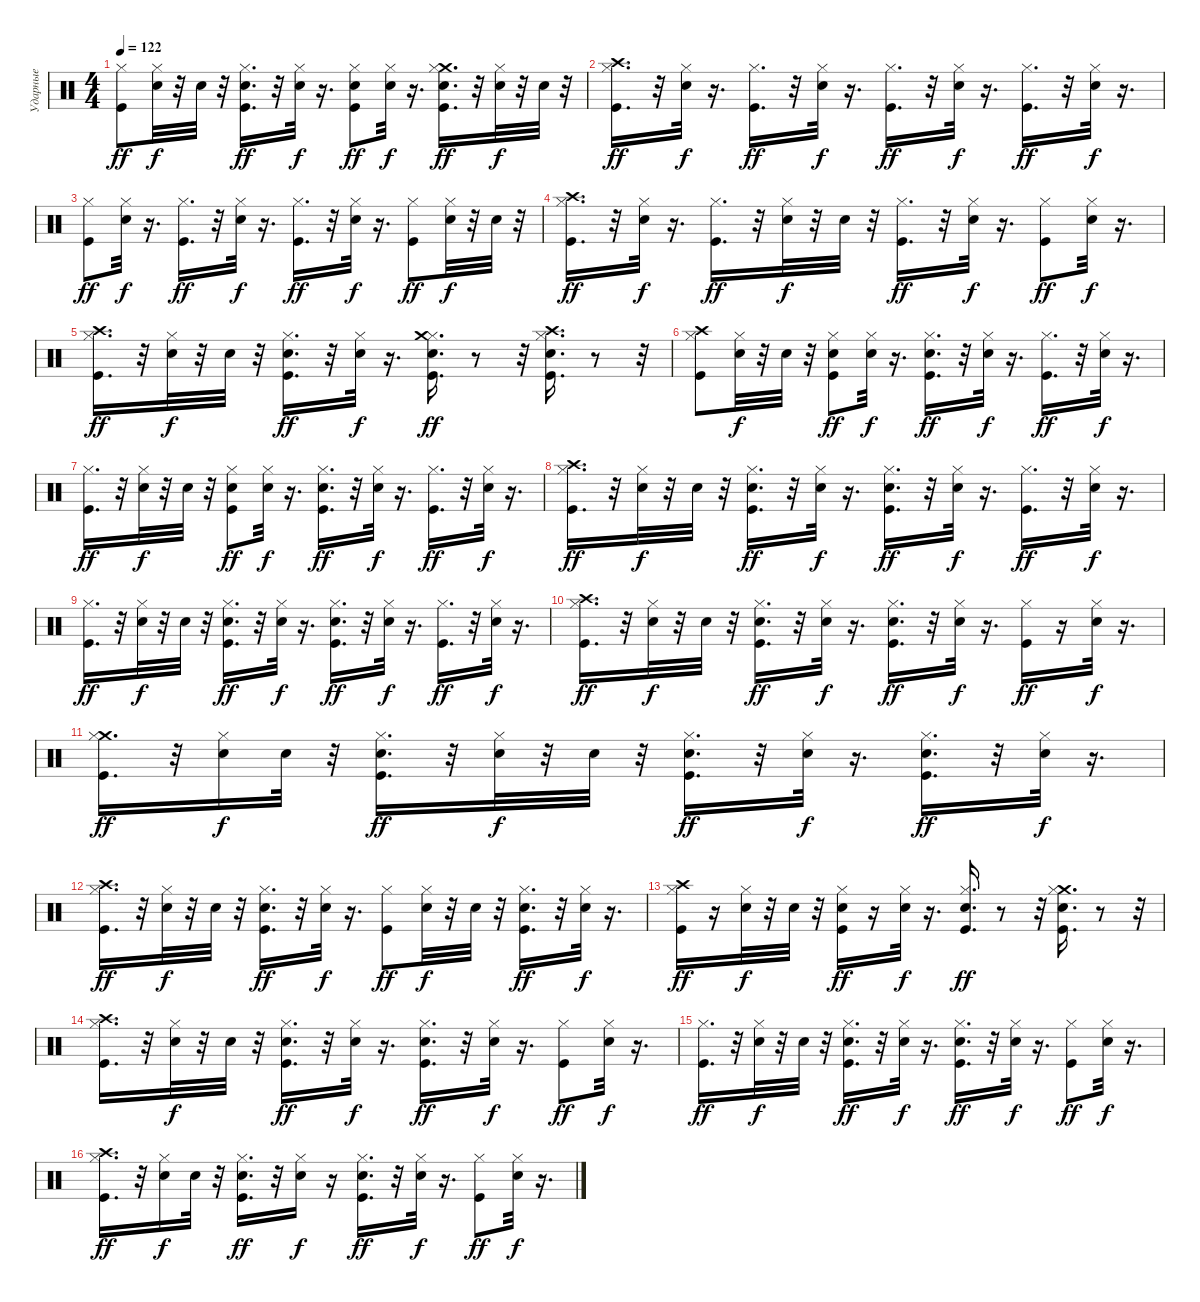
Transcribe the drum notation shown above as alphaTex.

\track ("Ударные" "Ударные") {instrument percussion}
\staff {score}
\articulation defaults
\ts (4 4)
\tempo 122
\clef neutral
\ks c
("Kick (hit)" "Hi-Hat (closed)").8{dy ff} ("Electric Snare (hit)" "Hi-Hat (closed)").32{dy f} r.32 "Electric Snare (hit)".32 r.32 ("Electric Snare (hit)" "Kick (hit)" "Hi-Hat (closed)").16{d dy ff} r.32 ("Electric Snare (hit)" "Hi-Hat (closed)").32{dy f} r.16{d} ("Electric Snare (hit)" "Kick (hit)" "Hi-Hat (closed)").8{dy ff} ("Electric Snare (hit)" "Hi-Hat (closed)").32{dy f} r.16{d} ("Electric Snare (hit)" "Crash medium (hit)" "Kick (hit)" "Hi-Hat (closed)").16{d dy ff} r.32 ("Hi-Hat (closed)" "Electric Snare (hit)").32{dy f} r.32 "Electric Snare (hit)".32 r.32 |
("Crash high (hit)" "Kick (hit)" "Hi-Hat (closed)").16{d dy ff} r.32 ("Hi-Hat (closed)" "Electric Snare (hit)").32{dy f} r.16{d} ("Hi-Hat (closed)" "Kick (hit)").16{d dy ff} r.32 ("Electric Snare (hit)" "Hi-Hat (closed)").32{dy f} r.16{d} ("Kick (hit)" "Hi-Hat (closed)").16{d dy ff} r.32 ("Electric Snare (hit)" "Hi-Hat (closed)").32{dy f} r.16{d} ("Hi-Hat (closed)" "Kick (hit)").16{d dy ff} r.32 ("Hi-Hat (closed)" "Electric Snare (hit)").32{dy f} r.16{d} |
("Hi-Hat (closed)" "Kick (hit)").8{dy ff} ("Hi-Hat (closed)" "Electric Snare (hit)").32{dy f} r.16{d} ("Hi-Hat (closed)" "Kick (hit)").16{d dy ff} r.32 ("Hi-Hat (closed)" "Electric Snare (hit)").32{dy f} r.16{d} ("Kick (hit)" "Hi-Hat (closed)").16{d dy ff} r.32 ("Hi-Hat (closed)" "Electric Snare (hit)").32{dy f} r.16{d} ("Hi-Hat (closed)" "Kick (hit)").8{dy ff} ("Electric Snare (hit)" "Hi-Hat (closed)").32{dy f} r.32 "Electric Snare (hit)".32 r.32 |
("Crash high (hit)" "Kick (hit)" "Hi-Hat (closed)").16{d dy ff} r.32 ("Hi-Hat (closed)" "Electric Snare (hit)").32{dy f} r.16{d} ("Kick (hit)" "Hi-Hat (closed)").16{d dy ff} r.32 ("Hi-Hat (closed)" "Electric Snare (hit)").32{dy f} r.32 "Electric Snare (hit)".32 r.32 ("Kick (hit)" "Hi-Hat (closed)").16{d dy ff} r.32 ("Hi-Hat (closed)" "Electric Snare (hit)").32{dy f} r.16{d} ("Kick (hit)" "Hi-Hat (closed)").8{dy ff} ("Electric Snare (hit)" "Hi-Hat (closed)").32{dy f} r.16{d} |
("Kick (hit)" "Hi-Hat (closed)" "Crash high (hit)").16{d dy ff} r.32 ("Electric Snare (hit)" "Hi-Hat (closed)").32{dy f} r.32 "Electric Snare (hit)".32 r.32 ("Electric Snare (hit)" "Kick (hit)" "Hi-Hat (closed)").16{d dy ff} r.32 ("Electric Snare (hit)" "Hi-Hat (closed)").32{dy f} r.16{d} ("Electric Snare (hit)" "Kick (hit)" "Hi-Hat (closed)" "Crash medium (hit)").16{d dy ff} r.8 r.32 ("Hi-Hat (closed)" "Kick (hit)" "Crash high (hit)" "Electric Snare (hit)").16{d} r.8 r.32 |
("Crash high (hit)" "Kick (hit)" "Hi-Hat (closed)").8 ("Electric Snare (hit)" "Hi-Hat (closed)").32{dy f} r.32 "Electric Snare (hit)".32 r.32 ("Electric Snare (hit)" "Hi-Hat (closed)" "Kick (hit)").8{dy ff} ("Electric Snare (hit)" "Hi-Hat (closed)").32{dy f} r.16{d} ("Electric Snare (hit)" "Hi-Hat (closed)" "Kick (hit)").16{d dy ff} r.32 ("Electric Snare (hit)" "Hi-Hat (closed)").32{dy f} r.16{d} ("Hi-Hat (closed)" "Kick (hit)").16{d dy ff} r.32 ("Electric Snare (hit)" "Hi-Hat (closed)").32{dy f} r.16{d} |
("Kick (hit)" "Hi-Hat (closed)").16{d dy ff} r.32 ("Electric Snare (hit)" "Hi-Hat (closed)").32{dy f} r.32 "Electric Snare (hit)".32 r.32 ("Electric Snare (hit)" "Hi-Hat (closed)" "Kick (hit)").8{dy ff} ("Electric Snare (hit)" "Hi-Hat (closed)").32{dy f} r.16{d} ("Electric Snare (hit)" "Kick (hit)" "Hi-Hat (closed)").16{d dy ff} r.32 ("Electric Snare (hit)" "Hi-Hat (closed)").32{dy f} r.16{d} ("Kick (hit)" "Hi-Hat (closed)").16{d dy ff} r.32 ("Hi-Hat (closed)" "Electric Snare (hit)").32{dy f} r.16{d} |
("Crash high (hit)" "Kick (hit)" "Hi-Hat (closed)").16{d dy ff} r.32 ("Hi-Hat (closed)" "Electric Snare (hit)").32{dy f} r.32 "Electric Snare (hit)".32 r.32 ("Hi-Hat (closed)" "Kick (hit)" "Electric Snare (hit)").16{d dy ff} r.32 ("Hi-Hat (closed)" "Electric Snare (hit)").32{dy f} r.16{d} ("Hi-Hat (closed)" "Kick (hit)" "Electric Snare (hit)").16{d dy ff} r.32 ("Hi-Hat (closed)" "Electric Snare (hit)").32{dy f} r.16{d} ("Hi-Hat (closed)" "Kick (hit)").16{d dy ff} r.32 ("Hi-Hat (closed)" "Electric Snare (hit)").32{dy f} r.16{d} |
("Hi-Hat (closed)" "Kick (hit)").16{d dy ff} r.32 ("Electric Snare (hit)" "Hi-Hat (closed)").32{dy f} r.32 "Electric Snare (hit)".32 r.32 ("Hi-Hat (closed)" "Kick (hit)" "Electric Snare (hit)").16{d dy ff} r.32 ("Hi-Hat (closed)" "Electric Snare (hit)").32{dy f} r.16{d} ("Kick (hit)" "Hi-Hat (closed)" "Electric Snare (hit)").16{d dy ff} r.32 ("Electric Snare (hit)" "Hi-Hat (closed)").32{dy f} r.16{d} ("Kick (hit)" "Hi-Hat (closed)").16{d dy ff} r.32 ("Hi-Hat (closed)" "Electric Snare (hit)").32{dy f} r.16{d} |
("Crash high (hit)" "Kick (hit)" "Hi-Hat (closed)").16{d dy ff} r.32 ("Hi-Hat (closed)" "Electric Snare (hit)").32{dy f} r.32 "Electric Snare (hit)".32 r.32 ("Hi-Hat (closed)" "Kick (hit)" "Electric Snare (hit)").16{d dy ff} r.32 ("Hi-Hat (closed)" "Electric Snare (hit)").32{dy f} r.16{d} ("Kick (hit)" "Hi-Hat (closed)" "Electric Snare (hit)").16{d dy ff} r.32 ("Hi-Hat (closed)" "Electric Snare (hit)").32{dy f} r.16{d} ("Kick (hit)" "Hi-Hat (closed)").16{dy ff} r.16 ("Hi-Hat (closed)" "Electric Snare (hit)").32{dy f} r.16{d} |
("Crash medium (hit)" "Kick (hit)" "Hi-Hat (closed)").16{d dy ff} r.32 ("Electric Snare (hit)" "Hi-Hat (closed)").16{dy f} "Electric Snare (hit)".32 r.32 ("Electric Snare (hit)" "Hi-Hat (closed)" "Kick (hit)").16{d dy ff} r.32 ("Hi-Hat (closed)" "Electric Snare (hit)").32{dy f} r.32 "Electric Snare (hit)".32 r.32 ("Kick (hit)" "Hi-Hat (closed)" "Electric Snare (hit)").16{d dy ff} r.32 ("Hi-Hat (closed)" "Electric Snare (hit)").32{dy f} r.16{d} ("Kick (hit)" "Hi-Hat (closed)" "Electric Snare (hit)").16{d dy ff} r.32 ("Hi-Hat (closed)" "Electric Snare (hit)").32{dy f} r.16{d} |
("Crash high (hit)" "Kick (hit)" "Hi-Hat (closed)").16{d dy ff} r.32 ("Hi-Hat (closed)" "Electric Snare (hit)").32{dy f} r.32 "Electric Snare (hit)".32 r.32 ("Kick (hit)" "Hi-Hat (closed)" "Electric Snare (hit)").16{d dy ff} r.32 ("Hi-Hat (closed)" "Electric Snare (hit)").32{dy f} r.16{d} ("Kick (hit)" "Hi-Hat (closed)").8{dy ff} ("Electric Snare (hit)" "Hi-Hat (closed)").32{dy f} r.32 "Electric Snare (hit)".32 r.32 ("Electric Snare (hit)" "Kick (hit)" "Hi-Hat (closed)").16{d dy ff} r.32 ("Hi-Hat (closed)" "Electric Snare (hit)").32{dy f} r.16{d} |
("Crash high (hit)" "Kick (hit)" "Hi-Hat (closed)").16{dy ff} r.16 ("Electric Snare (hit)" "Hi-Hat (closed)").32{dy f} r.32 "Electric Snare (hit)".32 r.32 ("Electric Snare (hit)" "Hi-Hat (closed)" "Kick (hit)").16{dy ff} r.16 ("Hi-Hat (closed)" "Electric Snare (hit)").32{dy f} r.16{d} ("Kick (hit)" "Hi-Hat (closed)" "Electric Snare (hit)").16{d dy ff} r.8 r.32 ("Crash medium (hit)" "Kick (hit)" "Hi-Hat (closed)" "Electric Snare (hit)").16{d} r.8 r.32 |
("Crash high (hit)" "Hi-Hat (closed)" "Kick (hit)").16{d} r.32 ("Hi-Hat (closed)" "Electric Snare (hit)").32{dy f} r.32 "Electric Snare (hit)".32 r.32 ("Hi-Hat (closed)" "Kick (hit)" "Electric Snare (hit)").16{d dy ff} r.32 ("Hi-Hat (closed)" "Electric Snare (hit)").32{dy f} r.16{d} ("Kick (hit)" "Hi-Hat (closed)" "Electric Snare (hit)").16{d dy ff} r.32 ("Hi-Hat (closed)" "Electric Snare (hit)").32{dy f} r.16{d} ("Kick (hit)" "Hi-Hat (closed)").8{dy ff} ("Hi-Hat (closed)" "Electric Snare (hit)").32{dy f} r.16{d} |
("Kick (hit)" "Hi-Hat (closed)").16{d dy ff} r.32 ("Electric Snare (hit)" "Hi-Hat (closed)").32{dy f} r.32 "Electric Snare (hit)".32 r.32 ("Electric Snare (hit)" "Kick (hit)" "Hi-Hat (closed)").16{d dy ff} r.32 ("Hi-Hat (closed)" "Electric Snare (hit)").32{dy f} r.16{d} ("Kick (hit)" "Hi-Hat (closed)" "Electric Snare (hit)").16{d dy ff} r.32 ("Hi-Hat (closed)" "Electric Snare (hit)").32{dy f} r.16{d} ("Kick (hit)" "Hi-Hat (closed)").8{dy ff} ("Hi-Hat (closed)" "Electric Snare (hit)").32{dy f} r.16{d} |
("Crash high (hit)" "Hi-Hat (closed)" "Kick (hit)").16{d dy ff} r.32 ("Electric Snare (hit)" "Hi-Hat (closed)").16{dy f} "Electric Snare (hit)".32 r.32 ("Electric Snare (hit)" "Hi-Hat (closed)" "Kick (hit)").16{d dy ff} r.32 ("Hi-Hat (closed)" "Electric Snare (hit)").16{dy f} r.16 ("Hi-Hat (closed)" "Kick (hit)" "Electric Snare (hit)").16{d dy ff} r.32 ("Hi-Hat (closed)" "Electric Snare (hit)").32{dy f} r.16{d} ("Hi-Hat (closed)" "Kick (hit)").8{dy ff} ("Hi-Hat (closed)" "Electric Snare (hit)").32{dy f} r.16{d}
